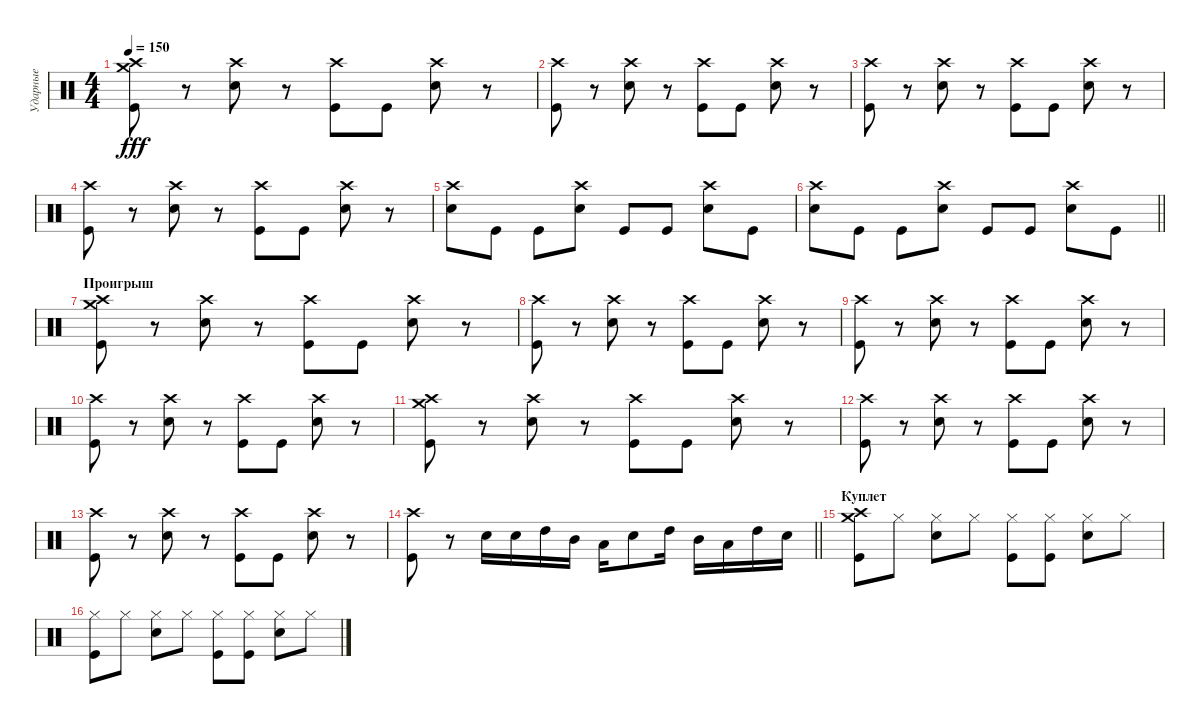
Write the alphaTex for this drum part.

\track ("Ударные" "Ударные") {instrument percussion}
\staff {score}
\articulation defaults
\ts (4 4)
\tempo 150
\clef neutral
\ks c
("Crash high (hit)" "Kick (hit)" "Crash medium (hit)").8{dy fff} r.8 ("Crash high (hit)" "Electric Snare (hit)").8 r.8 ("Crash high (hit)" "Kick (hit)").8 "Kick (hit)".8 ("Crash high (hit)" "Electric Snare (hit)").8 r.8 |
("Crash high (hit)" "Kick (hit)").8 r.8 ("Crash high (hit)" "Electric Snare (hit)").8 r.8 ("Crash high (hit)" "Kick (hit)").8 "Kick (hit)".8 ("Crash high (hit)" "Electric Snare (hit)").8 r.8 |
("Crash high (hit)" "Kick (hit)").8 r.8 ("Crash high (hit)" "Electric Snare (hit)").8 r.8 ("Crash high (hit)" "Kick (hit)").8 "Kick (hit)".8 ("Crash high (hit)" "Electric Snare (hit)").8 r.8 |
("Crash high (hit)" "Kick (hit)").8 r.8 ("Crash high (hit)" "Electric Snare (hit)").8 r.8 ("Crash high (hit)" "Kick (hit)").8 "Kick (hit)".8 ("Crash high (hit)" "Electric Snare (hit)").8 r.8 |
("Electric Snare (hit)" "Crash high (hit)").8 "Kick (hit)".8 "Kick (hit)".8 ("Electric Snare (hit)" "Crash high (hit)").8 "Kick (hit)".8 "Kick (hit)".8 ("Electric Snare (hit)" "Crash high (hit)").8 "Kick (hit)".8 |
\barLineRight lightlight
("Electric Snare (hit)" "Crash high (hit)").8 "Kick (hit)".8 "Kick (hit)".8 ("Electric Snare (hit)" "Crash high (hit)").8 "Kick (hit)".8 "Kick (hit)".8 ("Electric Snare (hit)" "Crash high (hit)").8 "Kick (hit)".8 |
\section ("" "Проигрыш")
("Crash medium (hit)" "Crash high (hit)" "Kick (hit)").8 r.8 ("Crash high (hit)" "Electric Snare (hit)").8 r.8 ("Crash high (hit)" "Kick (hit)").8 "Kick (hit)".8 ("Crash high (hit)" "Electric Snare (hit)").8 r.8 |
("Crash high (hit)" "Kick (hit)").8 r.8 ("Crash high (hit)" "Electric Snare (hit)").8 r.8 ("Crash high (hit)" "Kick (hit)").8 "Kick (hit)".8 ("Crash high (hit)" "Electric Snare (hit)").8 r.8 |
("Crash high (hit)" "Kick (hit)").8 r.8 ("Crash high (hit)" "Electric Snare (hit)").8 r.8 ("Crash high (hit)" "Kick (hit)").8 "Kick (hit)".8 ("Crash high (hit)" "Electric Snare (hit)").8 r.8 |
("Crash high (hit)" "Kick (hit)").8 r.8 ("Crash high (hit)" "Electric Snare (hit)").8 r.8 ("Crash high (hit)" "Kick (hit)").8 "Kick (hit)".8 ("Crash high (hit)" "Electric Snare (hit)").8 r.8 |
("Crash medium (hit)" "Crash high (hit)" "Kick (hit)").8 r.8 ("Crash high (hit)" "Electric Snare (hit)").8 r.8 ("Crash high (hit)" "Kick (hit)").8 "Kick (hit)".8 ("Crash high (hit)" "Electric Snare (hit)").8 r.8 |
("Crash high (hit)" "Kick (hit)").8 r.8 ("Crash high (hit)" "Electric Snare (hit)").8 r.8 ("Crash high (hit)" "Kick (hit)").8 "Kick (hit)".8 ("Crash high (hit)" "Electric Snare (hit)").8 r.8 |
("Crash high (hit)" "Kick (hit)").8 r.8 ("Crash high (hit)" "Electric Snare (hit)").8 r.8 ("Crash high (hit)" "Kick (hit)").8 "Kick (hit)".8 ("Crash high (hit)" "Electric Snare (hit)").8 r.8 |
\barLineRight lightlight
("Crash high (hit)" "Kick (hit)").8 r.8 "Electric Snare (hit)".16 "Electric Snare (hit)".16 "High Tom (hit)".16 "Mid Tom (hit)".16 "Low Tom (hit)".16 "Electric Snare (hit)".8 "High Tom (hit)".16 "Mid Tom (hit)".16 "Low Tom (hit)".16 "High Tom (hit)".16 "Electric Snare (hit)".16 |
\section ("" "Куплет")
("Crash medium (hit)" "Crash high (hit)" "Kick (hit)").8 "Hi-Hat (closed)".8 ("Hi-Hat (closed)" "Electric Snare (hit)").8 "Hi-Hat (closed)".8 ("Hi-Hat (closed)" "Kick (hit)").8 ("Hi-Hat (closed)" "Kick (hit)").8 ("Hi-Hat (closed)" "Electric Snare (hit)").8 "Hi-Hat (closed)".8 |
("Hi-Hat (closed)" "Kick (hit)").8 "Hi-Hat (closed)".8 ("Hi-Hat (closed)" "Electric Snare (hit)").8 "Hi-Hat (closed)".8 ("Hi-Hat (closed)" "Kick (hit)").8 ("Hi-Hat (closed)" "Kick (hit)").8 ("Hi-Hat (closed)" "Electric Snare (hit)").8 "Hi-Hat (closed)".8
